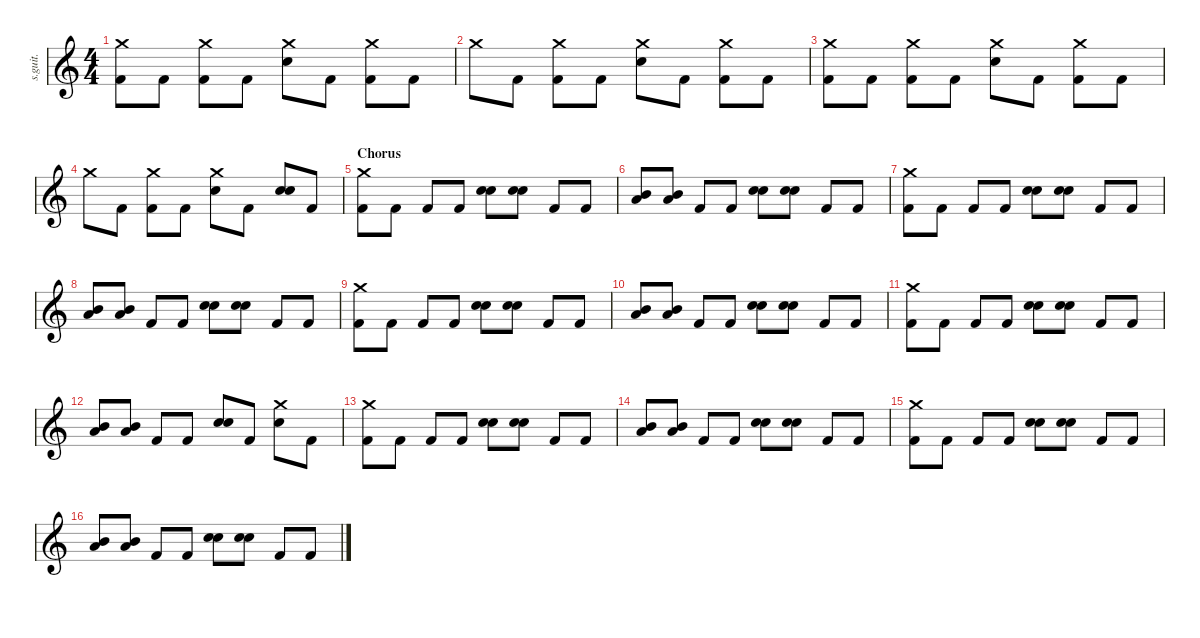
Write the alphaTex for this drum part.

\defaultSystemsLayout 4
\hideDynamics
\bracketExtendMode nobrackets
\track ("Taylor Hawkins" "s.guit.") {instrument percussion}
\staff {score}
\articulation defaults
\ts (4 4)
\tempo (154 hide)
\clef g2
\ks c
("Crash medium (hit)" "Kick (hit) 2").8{lyrics (0 "") lyrics (1 "") lyrics (2 "") lyrics (3 "") lyrics (4 "") dy f} "Kick (hit) 2".8{lyrics (0 "") lyrics (1 "") lyrics (2 "") lyrics (3 "") lyrics (4 "")} ("Crash medium (hit)" "Kick (hit) 2").8{lyrics (0 "") lyrics (1 "") lyrics (2 "") lyrics (3 "") lyrics (4 "")} "Kick (hit) 2".8{lyrics (0 "") lyrics (1 "") lyrics (2 "") lyrics (3 "") lyrics (4 "")} ("Crash medium (hit)" "Electric Snare (hit)").8{lyrics (0 "") lyrics (1 "") lyrics (2 "") lyrics (3 "") lyrics (4 "")} "Kick (hit) 2".8{lyrics (0 "") lyrics (1 "") lyrics (2 "") lyrics (3 "") lyrics (4 "")} ("Crash medium (hit)" "Kick (hit) 2").8{lyrics (0 "") lyrics (1 "") lyrics (2 "") lyrics (3 "") lyrics (4 "")} "Kick (hit) 2".8{lyrics (0 "") lyrics (1 "") lyrics (2 "") lyrics (3 "") lyrics (4 "")} |
"Crash medium (hit)".8{lyrics (0 "") lyrics (1 "") lyrics (2 "") lyrics (3 "") lyrics (4 "")} "Kick (hit) 2".8{lyrics (0 "") lyrics (1 "") lyrics (2 "") lyrics (3 "") lyrics (4 "")} ("Crash medium (hit)" "Kick (hit) 2").8{lyrics (0 "") lyrics (1 "") lyrics (2 "") lyrics (3 "") lyrics (4 "")} "Kick (hit) 2".8{lyrics (0 "") lyrics (1 "") lyrics (2 "") lyrics (3 "") lyrics (4 "")} ("Crash medium (hit)" "Electric Snare (hit)").8{lyrics (0 "") lyrics (1 "") lyrics (2 "") lyrics (3 "") lyrics (4 "")} "Kick (hit) 2".8{lyrics (0 "") lyrics (1 "") lyrics (2 "") lyrics (3 "") lyrics (4 "")} ("Crash medium (hit)" "Kick (hit) 2").8{lyrics (0 "") lyrics (1 "") lyrics (2 "") lyrics (3 "") lyrics (4 "")} "Kick (hit) 2".8{lyrics (0 "") lyrics (1 "") lyrics (2 "") lyrics (3 "") lyrics (4 "")} |
("Crash medium (hit)" "Kick (hit) 2").8{lyrics (0 "") lyrics (1 "") lyrics (2 "") lyrics (3 "") lyrics (4 "")} "Kick (hit) 2".8{lyrics (0 "") lyrics (1 "") lyrics (2 "") lyrics (3 "") lyrics (4 "")} ("Crash medium (hit)" "Kick (hit) 2").8{lyrics (0 "") lyrics (1 "") lyrics (2 "") lyrics (3 "") lyrics (4 "")} "Kick (hit) 2".8{lyrics (0 "") lyrics (1 "") lyrics (2 "") lyrics (3 "") lyrics (4 "")} ("Crash medium (hit)" "Electric Snare (hit)").8{lyrics (0 "") lyrics (1 "") lyrics (2 "") lyrics (3 "") lyrics (4 "")} "Kick (hit) 2".8{lyrics (0 "") lyrics (1 "") lyrics (2 "") lyrics (3 "") lyrics (4 "")} ("Crash medium (hit)" "Kick (hit) 2").8{lyrics (0 "") lyrics (1 "") lyrics (2 "") lyrics (3 "") lyrics (4 "")} "Kick (hit) 2".8{lyrics (0 "") lyrics (1 "") lyrics (2 "") lyrics (3 "") lyrics (4 "")} |
"Crash medium (hit)".8{lyrics (0 "") lyrics (1 "") lyrics (2 "") lyrics (3 "") lyrics (4 "")} "Kick (hit) 2".8{lyrics (0 "") lyrics (1 "") lyrics (2 "") lyrics (3 "") lyrics (4 "")} ("Crash medium (hit)" "Kick (hit) 2").8{lyrics (0 "") lyrics (1 "") lyrics (2 "") lyrics (3 "") lyrics (4 "")} "Kick (hit) 2".8{lyrics (0 "") lyrics (1 "") lyrics (2 "") lyrics (3 "") lyrics (4 "")} ("Crash medium (hit)" "Electric Snare (hit)").8{lyrics (0 "") lyrics (1 "") lyrics (2 "") lyrics (3 "") lyrics (4 "")} "Kick (hit) 2".8{lyrics (0 "") lyrics (1 "") lyrics (2 "") lyrics (3 "") lyrics (4 "")} ("Snare (hit) 2" "Electric Snare (hit)").8{lyrics (0 "") lyrics (1 "") lyrics (2 "") lyrics (3 "") lyrics (4 "")} "Kick (hit) 2".8{lyrics (0 "") lyrics (1 "") lyrics (2 "") lyrics (3 "") lyrics (4 "")} |
\section ("" "Chorus")
("Crash medium (hit)" "Kick (hit) 2").8{lyrics (0 "") lyrics (1 "") lyrics (2 "") lyrics (3 "") lyrics (4 "")} "Kick (hit) 2".8{lyrics (0 "") lyrics (1 "") lyrics (2 "") lyrics (3 "") lyrics (4 "")} "Kick (hit) 2".8{lyrics (0 "") lyrics (1 "") lyrics (2 "") lyrics (3 "") lyrics (4 "")} "Kick (hit) 2".8{lyrics (0 "") lyrics (1 "") lyrics (2 "") lyrics (3 "") lyrics (4 "")} ("Snare (hit) 2" "Electric Snare (hit)").8{lyrics (0 "") lyrics (1 "") lyrics (2 "") lyrics (3 "") lyrics (4 "")} ("Snare (hit) 2" "Electric Snare (hit)").8{lyrics (0 "") lyrics (1 "") lyrics (2 "") lyrics (3 "") lyrics (4 "")} "Kick (hit) 2".8{lyrics (0 "") lyrics (1 "") lyrics (2 "") lyrics (3 "") lyrics (4 "")} "Kick (hit) 2".8{lyrics (0 "") lyrics (1 "") lyrics (2 "") lyrics (3 "") lyrics (4 "")} |
("Low Floor Tom (hit)" "Mid Tom (hit)").8{lyrics (0 "") lyrics (1 "") lyrics (2 "") lyrics (3 "") lyrics (4 "")} ("Low Floor Tom (hit)" "Mid Tom (hit)").8{lyrics (0 "") lyrics (1 "") lyrics (2 "") lyrics (3 "") lyrics (4 "")} "Kick (hit) 2".8{lyrics (0 "") lyrics (1 "") lyrics (2 "") lyrics (3 "") lyrics (4 "")} "Kick (hit) 2".8{lyrics (0 "") lyrics (1 "") lyrics (2 "") lyrics (3 "") lyrics (4 "")} ("Snare (hit) 2" "Electric Snare (hit)").8{lyrics (0 "") lyrics (1 "") lyrics (2 "") lyrics (3 "") lyrics (4 "")} ("Snare (hit) 2" "Electric Snare (hit)").8{lyrics (0 "") lyrics (1 "") lyrics (2 "") lyrics (3 "") lyrics (4 "")} "Kick (hit) 2".8{lyrics (0 "") lyrics (1 "") lyrics (2 "") lyrics (3 "") lyrics (4 "")} "Kick (hit) 2".8{lyrics (0 "") lyrics (1 "") lyrics (2 "") lyrics (3 "") lyrics (4 "")} |
("Crash medium (hit)" "Kick (hit) 2").8{lyrics (0 "") lyrics (1 "") lyrics (2 "") lyrics (3 "") lyrics (4 "")} "Kick (hit) 2".8{lyrics (0 "") lyrics (1 "") lyrics (2 "") lyrics (3 "") lyrics (4 "")} "Kick (hit) 2".8{lyrics (0 "") lyrics (1 "") lyrics (2 "") lyrics (3 "") lyrics (4 "")} "Kick (hit) 2".8{lyrics (0 "") lyrics (1 "") lyrics (2 "") lyrics (3 "") lyrics (4 "")} ("Snare (hit) 2" "Electric Snare (hit)").8{lyrics (0 "") lyrics (1 "") lyrics (2 "") lyrics (3 "") lyrics (4 "")} ("Snare (hit) 2" "Electric Snare (hit)").8{lyrics (0 "") lyrics (1 "") lyrics (2 "") lyrics (3 "") lyrics (4 "")} "Kick (hit) 2".8{lyrics (0 "") lyrics (1 "") lyrics (2 "") lyrics (3 "") lyrics (4 "")} "Kick (hit) 2".8{lyrics (0 "") lyrics (1 "") lyrics (2 "") lyrics (3 "") lyrics (4 "")} |
("Low Floor Tom (hit)" "Mid Tom (hit)").8{lyrics (0 "") lyrics (1 "") lyrics (2 "") lyrics (3 "") lyrics (4 "")} ("Low Floor Tom (hit)" "Mid Tom (hit)").8{lyrics (0 "") lyrics (1 "") lyrics (2 "") lyrics (3 "") lyrics (4 "")} "Kick (hit) 2".8{lyrics (0 "") lyrics (1 "") lyrics (2 "") lyrics (3 "") lyrics (4 "")} "Kick (hit) 2".8{lyrics (0 "") lyrics (1 "") lyrics (2 "") lyrics (3 "") lyrics (4 "")} ("Snare (hit) 2" "Electric Snare (hit)").8{lyrics (0 "") lyrics (1 "") lyrics (2 "") lyrics (3 "") lyrics (4 "")} ("Snare (hit) 2" "Electric Snare (hit)").8{lyrics (0 "") lyrics (1 "") lyrics (2 "") lyrics (3 "") lyrics (4 "")} "Kick (hit) 2".8{lyrics (0 "") lyrics (1 "") lyrics (2 "") lyrics (3 "") lyrics (4 "")} "Kick (hit) 2".8{lyrics (0 "") lyrics (1 "") lyrics (2 "") lyrics (3 "") lyrics (4 "")} |
("Crash medium (hit)" "Kick (hit) 2").8{lyrics (0 "") lyrics (1 "") lyrics (2 "") lyrics (3 "") lyrics (4 "")} "Kick (hit) 2".8{lyrics (0 "") lyrics (1 "") lyrics (2 "") lyrics (3 "") lyrics (4 "")} "Kick (hit) 2".8{lyrics (0 "") lyrics (1 "") lyrics (2 "") lyrics (3 "") lyrics (4 "")} "Kick (hit) 2".8{lyrics (0 "") lyrics (1 "") lyrics (2 "") lyrics (3 "") lyrics (4 "")} ("Snare (hit) 2" "Electric Snare (hit)").8{lyrics (0 "") lyrics (1 "") lyrics (2 "") lyrics (3 "") lyrics (4 "")} ("Snare (hit) 2" "Electric Snare (hit)").8{lyrics (0 "") lyrics (1 "") lyrics (2 "") lyrics (3 "") lyrics (4 "")} "Kick (hit) 2".8{lyrics (0 "") lyrics (1 "") lyrics (2 "") lyrics (3 "") lyrics (4 "")} "Kick (hit) 2".8{lyrics (0 "") lyrics (1 "") lyrics (2 "") lyrics (3 "") lyrics (4 "")} |
("Low Floor Tom (hit)" "Mid Tom (hit)").8{lyrics (0 "") lyrics (1 "") lyrics (2 "") lyrics (3 "") lyrics (4 "")} ("Low Floor Tom (hit)" "Mid Tom (hit)").8{lyrics (0 "") lyrics (1 "") lyrics (2 "") lyrics (3 "") lyrics (4 "")} "Kick (hit) 2".8{lyrics (0 "") lyrics (1 "") lyrics (2 "") lyrics (3 "") lyrics (4 "")} "Kick (hit) 2".8{lyrics (0 "") lyrics (1 "") lyrics (2 "") lyrics (3 "") lyrics (4 "")} ("Snare (hit) 2" "Electric Snare (hit)").8{lyrics (0 "") lyrics (1 "") lyrics (2 "") lyrics (3 "") lyrics (4 "")} ("Snare (hit) 2" "Electric Snare (hit)").8{lyrics (0 "") lyrics (1 "") lyrics (2 "") lyrics (3 "") lyrics (4 "")} "Kick (hit) 2".8{lyrics (0 "") lyrics (1 "") lyrics (2 "") lyrics (3 "") lyrics (4 "")} "Kick (hit) 2".8{lyrics (0 "") lyrics (1 "") lyrics (2 "") lyrics (3 "") lyrics (4 "")} |
("Crash medium (hit)" "Kick (hit) 2").8{lyrics (0 "") lyrics (1 "") lyrics (2 "") lyrics (3 "") lyrics (4 "")} "Kick (hit) 2".8{lyrics (0 "") lyrics (1 "") lyrics (2 "") lyrics (3 "") lyrics (4 "")} "Kick (hit) 2".8{lyrics (0 "") lyrics (1 "") lyrics (2 "") lyrics (3 "") lyrics (4 "")} "Kick (hit) 2".8{lyrics (0 "") lyrics (1 "") lyrics (2 "") lyrics (3 "") lyrics (4 "")} ("Snare (hit) 2" "Electric Snare (hit)").8{lyrics (0 "") lyrics (1 "") lyrics (2 "") lyrics (3 "") lyrics (4 "")} ("Snare (hit) 2" "Electric Snare (hit)").8{lyrics (0 "") lyrics (1 "") lyrics (2 "") lyrics (3 "") lyrics (4 "")} "Kick (hit) 2".8{lyrics (0 "") lyrics (1 "") lyrics (2 "") lyrics (3 "") lyrics (4 "")} "Kick (hit) 2".8{lyrics (0 "") lyrics (1 "") lyrics (2 "") lyrics (3 "") lyrics (4 "")} |
("Mid Tom (hit)" "Low Tom (hit)").8{lyrics (0 "") lyrics (1 "") lyrics (2 "") lyrics (3 "") lyrics (4 "")} ("Mid Tom (hit)" "Low Tom (hit)").8{lyrics (0 "") lyrics (1 "") lyrics (2 "") lyrics (3 "") lyrics (4 "")} "Kick (hit) 2".8{lyrics (0 "") lyrics (1 "") lyrics (2 "") lyrics (3 "") lyrics (4 "")} "Kick (hit) 2".8{lyrics (0 "") lyrics (1 "") lyrics (2 "") lyrics (3 "") lyrics (4 "")} ("Snare (hit) 2" "Electric Snare (hit)").8{lyrics (0 "") lyrics (1 "") lyrics (2 "") lyrics (3 "") lyrics (4 "")} "Kick (hit) 2".8{lyrics (0 "") lyrics (1 "") lyrics (2 "") lyrics (3 "") lyrics (4 "")} ("Crash medium (hit)" "Snare (hit) 2").8{lyrics (0 "") lyrics (1 "") lyrics (2 "") lyrics (3 "") lyrics (4 "")} "Kick (hit) 2".8{lyrics (0 "") lyrics (1 "") lyrics (2 "") lyrics (3 "") lyrics (4 "")} |
("Crash medium (hit)" "Kick (hit) 2").8{lyrics (0 "") lyrics (1 "") lyrics (2 "") lyrics (3 "") lyrics (4 "")} "Kick (hit) 2".8{lyrics (0 "") lyrics (1 "") lyrics (2 "") lyrics (3 "") lyrics (4 "")} "Kick (hit) 2".8{lyrics (0 "") lyrics (1 "") lyrics (2 "") lyrics (3 "") lyrics (4 "")} "Kick (hit) 2".8{lyrics (0 "") lyrics (1 "") lyrics (2 "") lyrics (3 "") lyrics (4 "")} ("Snare (hit) 2" "Electric Snare (hit)").8{lyrics (0 "") lyrics (1 "") lyrics (2 "") lyrics (3 "") lyrics (4 "")} ("Snare (hit) 2" "Electric Snare (hit)").8{lyrics (0 "") lyrics (1 "") lyrics (2 "") lyrics (3 "") lyrics (4 "")} "Kick (hit) 2".8{lyrics (0 "") lyrics (1 "") lyrics (2 "") lyrics (3 "") lyrics (4 "")} "Kick (hit) 2".8{lyrics (0 "") lyrics (1 "") lyrics (2 "") lyrics (3 "") lyrics (4 "")} |
("Low Floor Tom (hit)" "Mid Tom (hit)").8{lyrics (0 "") lyrics (1 "") lyrics (2 "") lyrics (3 "") lyrics (4 "")} ("Low Floor Tom (hit)" "Mid Tom (hit)").8{lyrics (0 "") lyrics (1 "") lyrics (2 "") lyrics (3 "") lyrics (4 "")} "Kick (hit) 2".8{lyrics (0 "") lyrics (1 "") lyrics (2 "") lyrics (3 "") lyrics (4 "")} "Kick (hit) 2".8{lyrics (0 "") lyrics (1 "") lyrics (2 "") lyrics (3 "") lyrics (4 "")} ("Snare (hit) 2" "Electric Snare (hit)").8{lyrics (0 "") lyrics (1 "") lyrics (2 "") lyrics (3 "") lyrics (4 "")} ("Snare (hit) 2" "Electric Snare (hit)").8{lyrics (0 "") lyrics (1 "") lyrics (2 "") lyrics (3 "") lyrics (4 "")} "Kick (hit) 2".8{lyrics (0 "") lyrics (1 "") lyrics (2 "") lyrics (3 "") lyrics (4 "")} "Kick (hit) 2".8{lyrics (0 "") lyrics (1 "") lyrics (2 "") lyrics (3 "") lyrics (4 "")} |
("Crash medium (hit)" "Kick (hit) 2").8{lyrics (0 "") lyrics (1 "") lyrics (2 "") lyrics (3 "") lyrics (4 "")} "Kick (hit) 2".8{lyrics (0 "") lyrics (1 "") lyrics (2 "") lyrics (3 "") lyrics (4 "")} "Kick (hit) 2".8{lyrics (0 "") lyrics (1 "") lyrics (2 "") lyrics (3 "") lyrics (4 "")} "Kick (hit) 2".8{lyrics (0 "") lyrics (1 "") lyrics (2 "") lyrics (3 "") lyrics (4 "")} ("Snare (hit) 2" "Electric Snare (hit)").8{lyrics (0 "") lyrics (1 "") lyrics (2 "") lyrics (3 "") lyrics (4 "")} ("Snare (hit) 2" "Electric Snare (hit)").8{lyrics (0 "") lyrics (1 "") lyrics (2 "") lyrics (3 "") lyrics (4 "")} "Kick (hit) 2".8{lyrics (0 "") lyrics (1 "") lyrics (2 "") lyrics (3 "") lyrics (4 "")} "Kick (hit) 2".8{lyrics (0 "") lyrics (1 "") lyrics (2 "") lyrics (3 "") lyrics (4 "")} |
("Low Floor Tom (hit)" "Mid Tom (hit)").8{lyrics (0 "") lyrics (1 "") lyrics (2 "") lyrics (3 "") lyrics (4 "")} ("Low Floor Tom (hit)" "Mid Tom (hit)").8{lyrics (0 "") lyrics (1 "") lyrics (2 "") lyrics (3 "") lyrics (4 "")} "Kick (hit) 2".8{lyrics (0 "") lyrics (1 "") lyrics (2 "") lyrics (3 "") lyrics (4 "")} "Kick (hit) 2".8{lyrics (0 "") lyrics (1 "") lyrics (2 "") lyrics (3 "") lyrics (4 "")} ("Snare (hit) 2" "Electric Snare (hit)").8{lyrics (0 "") lyrics (1 "") lyrics (2 "") lyrics (3 "") lyrics (4 "")} ("Snare (hit) 2" "Electric Snare (hit)").8{lyrics (0 "") lyrics (1 "") lyrics (2 "") lyrics (3 "") lyrics (4 "")} "Kick (hit) 2".8{lyrics (0 "") lyrics (1 "") lyrics (2 "") lyrics (3 "") lyrics (4 "")} "Kick (hit) 2".8{lyrics (0 "") lyrics (1 "") lyrics (2 "") lyrics (3 "") lyrics (4 "")}
